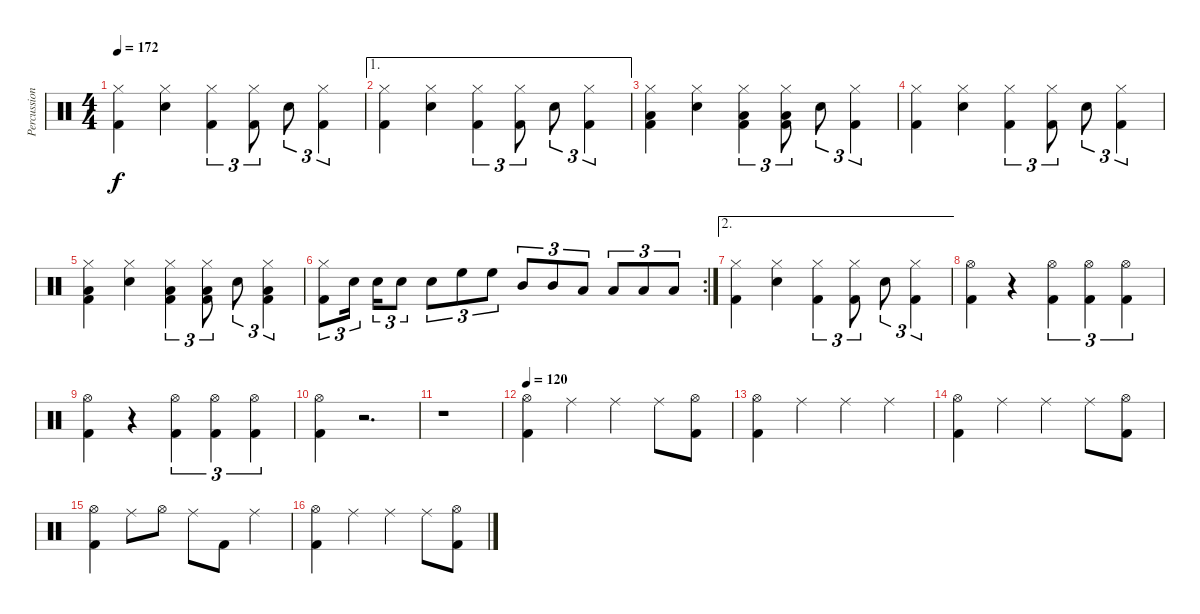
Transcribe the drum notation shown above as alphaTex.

\track ("Percussions" "Percussion") {instrument percussion}
\staff {score}
\articulation defaults
\ts (4 4)
\tempo 172
\clef neutral
\ks c
("Hi-Hat (closed)" "Kick (hit) 2").4{dy f} ("Hi-Hat (closed)" "Snare (hit) 2").4 ("Hi-Hat (closed)" "Kick (hit) 2").4{tu (3 2)} ("Hi-Hat (closed)" "Kick (hit) 2").8{tu (3 2)} "Snare (hit) 2".8{tu (3 2)} ("Hi-Hat (closed)" "Kick (hit) 2").4{tu (3 2)} |
\ae 1
("Hi-Hat (closed)" "Kick (hit) 2").4 ("Hi-Hat (closed)" "Snare (hit) 2").4 ("Hi-Hat (closed)" "Kick (hit) 2").4{tu (3 2)} ("Hi-Hat (closed)" "Kick (hit) 2").8{tu (3 2)} "Snare (hit) 2".8{tu (3 2)} ("Hi-Hat (closed)" "Kick (hit) 2").4{tu (3 2)} |
("Hi-Hat (closed)" "Low Floor Tom (hit)" "Kick (hit) 2").4 ("Hi-Hat (closed)" "Snare (hit) 2").4 ("Hi-Hat (closed)" "Low Floor Tom (hit)" "Kick (hit) 2").4{tu (3 2)} ("Hi-Hat (closed)" "Low Floor Tom (hit)" "Kick (hit) 2").8{tu (3 2)} "Snare (hit) 2".8{tu (3 2)} ("Hi-Hat (closed)" "Kick (hit) 2").4{tu (3 2)} |
("Hi-Hat (closed)" "Kick (hit) 2").4 ("Hi-Hat (closed)" "Snare (hit) 2").4 ("Hi-Hat (closed)" "Kick (hit) 2").4{tu (3 2)} ("Hi-Hat (closed)" "Kick (hit) 2").8{tu (3 2)} "Snare (hit) 2".8{tu (3 2)} ("Hi-Hat (closed)" "Kick (hit) 2").4{tu (3 2)} |
("Hi-Hat (closed)" "Low Floor Tom (hit)" "Kick (hit) 2").4 ("Hi-Hat (closed)" "Snare (hit) 2").4 ("Hi-Hat (closed)" "Low Floor Tom (hit)" "Kick (hit) 2").4{tu (3 2)} ("Hi-Hat (closed)" "Low Floor Tom (hit)" "Kick (hit) 2").8{tu (3 2)} "Snare (hit) 2".8{tu (3 2)} ("Hi-Hat (closed)" "Low Floor Tom (hit)" "Kick (hit) 2").4{tu (3 2)} |
\rc 2
("Hi-Hat (closed)" "Kick (hit) 2").8{tu (3 2)} "Snare (hit) 2".16{tu (3 2)} "Snare (hit) 2".16{tu (3 2)} "Snare (hit) 2".8{tu (3 2)} "Snare (hit) 2".8{tu (3 2)} "High Floor Tom (hit)".8{tu (3 2)} "High Floor Tom (hit)".8{tu (3 2)} "Mid Tom (hit)".8{tu (3 2)} "Mid Tom (hit)".8{tu (3 2)} "Low Tom (hit)".8{tu (3 2)} "Low Tom (hit)".8{tu (3 2)} "Low Floor Tom (hit)".8{tu (3 2)} "Low Floor Tom (hit)".8{tu (3 2)} |
\ae 2
("Hi-Hat (closed)" "Kick (hit) 2").4 ("Hi-Hat (closed)" "Snare (hit) 2").4 ("Hi-Hat (closed)" "Kick (hit) 2").4{tu (3 2)} ("Hi-Hat (closed)" "Kick (hit) 2").8{tu (3 2)} "Snare (hit) 2".8{tu (3 2)} ("Hi-Hat (closed)" "Kick (hit) 2").4{tu (3 2)} |
("Hi-Hat (open)" "Kick (hit) 2").4 r.4 ("Hi-Hat (open)" "Kick (hit) 2").4{tu (3 2)} ("Hi-Hat (open)" "Kick (hit) 2").4{tu (3 2)} ("Hi-Hat (open)" "Kick (hit) 2").4{tu (3 2)} |
("Hi-Hat (open)" "Kick (hit) 2").4 r.4 ("Hi-Hat (open)" "Kick (hit) 2").4{tu (3 2)} ("Hi-Hat (open)" "Kick (hit) 2").4{tu (3 2)} ("Hi-Hat (open)" "Kick (hit) 2").4{tu (3 2)} |
("Hi-Hat (open)" "Kick (hit) 2").4 r.2{d} |
r.1 |
\tempo 120
("Hi-Hat (open)" "Kick (hit) 2").4 "Ride (middle)".4 "Ride (middle)".4 "Ride (middle)".8 ("Hi-Hat (open)" "Kick (hit) 2").8 |
("Hi-Hat (open)" "Kick (hit) 2").4 "Ride (middle)".4 "Ride (middle)".4 "Ride (middle)".4 |
("Hi-Hat (open)" "Kick (hit) 2").4 "Ride (middle)".4 "Ride (middle)".4 "Ride (middle)".8 ("Hi-Hat (open)" "Kick (hit) 2").8 |
("Hi-Hat (open)" "Kick (hit) 2").4 "Ride (middle)".8 "Hi-Hat (open)".8 "Ride (middle)".8 "Kick (hit) 2".8 "Ride (middle)".4 |
("Hi-Hat (open)" "Kick (hit) 2").4 "Ride (middle)".4 "Ride (middle)".4 "Ride (middle)".8 ("Hi-Hat (open)" "Kick (hit) 2").8
